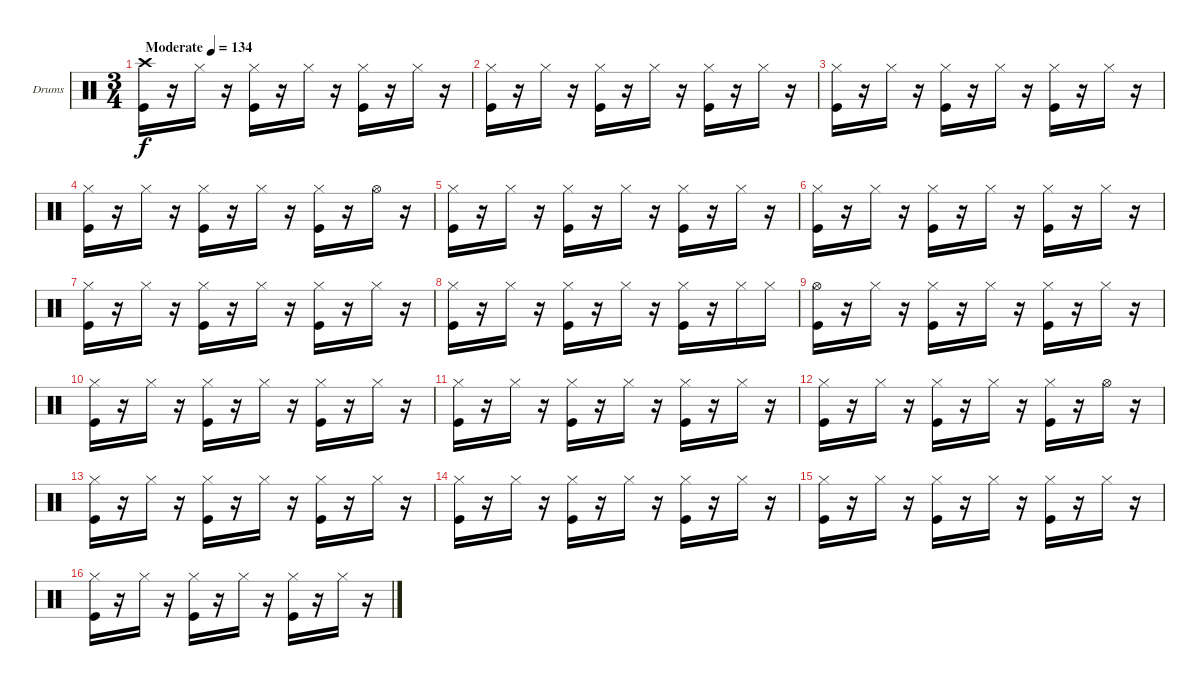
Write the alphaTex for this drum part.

\bracketExtendMode groupsimilarinstruments
\firstSystemTrackNameOrientation horizontal
\otherSystemsTrackNameOrientation horizontal
\track ("Drumkit" "Drums") {instrument percussion}
\staff {score}
\articulation defaults
\ts (3 4)
\beaming (8 2 2 2)
\tempo (134 "Moderate")
\clef neutral
\ks c
("Crash high (hit)" "Kick (hit)").16{dy f} r.16 "Hi-Hat (closed)".16 r.16 ("Kick (hit)" "Hi-Hat (closed)").16 r.16 "Hi-Hat (closed)".16 r.16 ("Hi-Hat (closed)" "Kick (hit)").16 r.16 "Hi-Hat (closed)".16 r.16 |
("Hi-Hat (closed)" "Kick (hit)").16 r.16 "Hi-Hat (closed)".16 r.16 ("Kick (hit)" "Hi-Hat (closed)").16 r.16 "Hi-Hat (closed)".16 r.16 ("Hi-Hat (closed)" "Kick (hit)").16 r.16 "Hi-Hat (closed)".16 r.16 |
("Hi-Hat (closed)" "Kick (hit)").16 r.16 "Hi-Hat (closed)".16 r.16 ("Hi-Hat (closed)" "Kick (hit)").16 r.16 "Hi-Hat (closed)".16 r.16 ("Hi-Hat (closed)" "Kick (hit)").16 r.16 "Hi-Hat (closed)".16 r.16 |
("Hi-Hat (closed)" "Kick (hit)").16 r.16 "Hi-Hat (closed)".16 r.16 ("Kick (hit)" "Hi-Hat (closed)").16 r.16 "Hi-Hat (closed)".16 r.16 ("Kick (hit)" "Hi-Hat (closed)").16 r.16 "Hi-Hat (open)".16 r.16 |
("Hi-Hat (closed)" "Kick (hit)").16 r.16 "Hi-Hat (closed)".16 r.16 ("Hi-Hat (closed)" "Kick (hit)").16 r.16 "Hi-Hat (closed)".16 r.16 ("Hi-Hat (closed)" "Kick (hit)").16 r.16 "Hi-Hat (closed)".16 r.16 |
("Kick (hit)" "Hi-Hat (closed)").16 r.16 "Hi-Hat (closed)".16 r.16 ("Hi-Hat (closed)" "Kick (hit)").16 r.16 "Hi-Hat (closed)".16 r.16 ("Kick (hit)" "Hi-Hat (closed)").16 r.16 "Hi-Hat (closed)".16 r.16 |
("Hi-Hat (closed)" "Kick (hit)").16 r.16 "Hi-Hat (closed)".16 r.16 ("Hi-Hat (closed)" "Kick (hit)").16 r.16 "Hi-Hat (closed)".16 r.16 ("Hi-Hat (closed)" "Kick (hit)").16 r.16 "Hi-Hat (closed)".16 r.16 |
("Kick (hit)" "Hi-Hat (closed)").16 r.16 "Hi-Hat (closed)".16 r.16 ("Kick (hit)" "Hi-Hat (closed)").16 r.16 "Hi-Hat (closed)".16 r.16 ("Kick (hit)" "Hi-Hat (closed)").16 r.16 "Hi-Hat (closed)".16 "Hi-Hat (closed)".16 |
("Kick (hit)" "Hi-Hat (open)").16 r.16 "Hi-Hat (closed)".16 r.16 ("Kick (hit)" "Hi-Hat (closed)").16 r.16 "Hi-Hat (closed)".16 r.16 ("Kick (hit)" "Hi-Hat (closed)").16 r.16 "Hi-Hat (closed)".16 r.16 |
("Hi-Hat (closed)" "Kick (hit)").16 r.16 "Hi-Hat (closed)".16 r.16 ("Hi-Hat (closed)" "Kick (hit)").16 r.16 "Hi-Hat (closed)".16 r.16 ("Kick (hit)" "Hi-Hat (closed)").16 r.16 "Hi-Hat (closed)".16 r.16 |
("Kick (hit)" "Hi-Hat (closed)").16 r.16 "Hi-Hat (closed)".16 r.16 ("Hi-Hat (closed)" "Kick (hit)").16 r.16 "Hi-Hat (closed)".16 r.16 ("Hi-Hat (closed)" "Kick (hit)").16 r.16 "Hi-Hat (closed)".16 r.16 |
("Kick (hit)" "Hi-Hat (closed)").16 r.16 "Hi-Hat (closed)".16 r.16 ("Hi-Hat (closed)" "Kick (hit)").16 r.16 "Hi-Hat (closed)".16 r.16 ("Kick (hit)" "Hi-Hat (closed)").16 r.16 "Hi-Hat (open)".16 r.16 |
("Kick (hit)" "Hi-Hat (closed)").16 r.16 "Hi-Hat (closed)".16 r.16 ("Kick (hit)" "Hi-Hat (closed)").16 r.16 "Hi-Hat (closed)".16 r.16 ("Kick (hit)" "Hi-Hat (closed)").16 r.16 "Hi-Hat (closed)".16 r.16 |
("Hi-Hat (closed)" "Kick (hit)").16 r.16 "Hi-Hat (closed)".16 r.16 ("Hi-Hat (closed)" "Kick (hit)").16 r.16 "Hi-Hat (closed)".16 r.16 ("Kick (hit)" "Hi-Hat (closed)").16 r.16 "Hi-Hat (closed)".16 r.16 |
("Kick (hit)" "Hi-Hat (closed)").16 r.16 "Hi-Hat (closed)".16 r.16 ("Hi-Hat (closed)" "Kick (hit)").16 r.16 "Hi-Hat (closed)".16 r.16 ("Hi-Hat (closed)" "Kick (hit)").16 r.16 "Hi-Hat (closed)".16 r.16 |
("Kick (hit)" "Hi-Hat (closed)").16 r.16 "Hi-Hat (closed)".16 r.16 ("Hi-Hat (closed)" "Kick (hit)").16 r.16 "Hi-Hat (closed)".16 r.16 ("Hi-Hat (closed)" "Kick (hit)").16 r.16 "Hi-Hat (closed)".16 r.16
